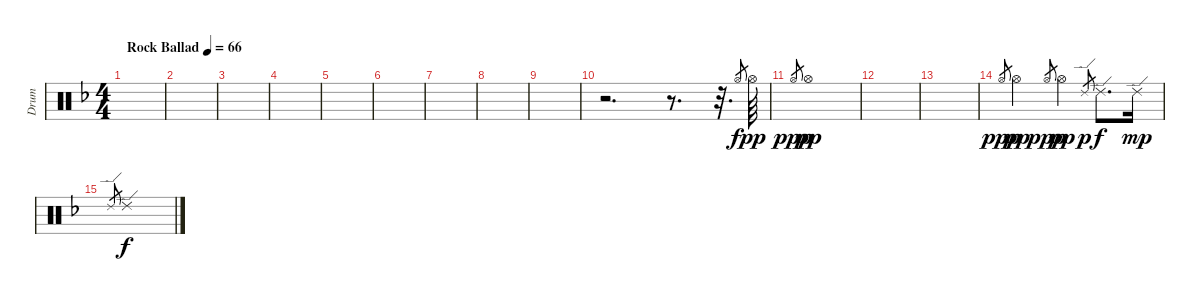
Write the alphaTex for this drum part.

\track ("Drum" "Drum") {instrument percussion}
\staff {score}
\articulation defaults
\ts (4 4)
\tempo (66 "Rock Ballad")
\clef neutral
\ks dminor
|
|
|
|
|
|
|
|
|
r.2{d} r.8{d} r.32{d} "Hi-Hat (open)".8{gr} "Hi-Hat (open)".64{dy pp} |
"Hi-Hat (open)".8{gr dy ppp} "Hi-Hat (open)".1{dy pp} |
|
|
"Hi-Hat (open)".8{gr dy ppp} "Hi-Hat (open)".2{dy pp} "Hi-Hat (open)".8{gr dy ppp} "Hi-Hat (open)".4{dy pp} "Ride (edge) 2".8{gr dy p} "Ride (edge) 2".8{d dy f} "Ride (edge) 2".16{dy mp} |
"Ride (edge) 2".8{gr} "Ride (edge) 2".1{dy f}
